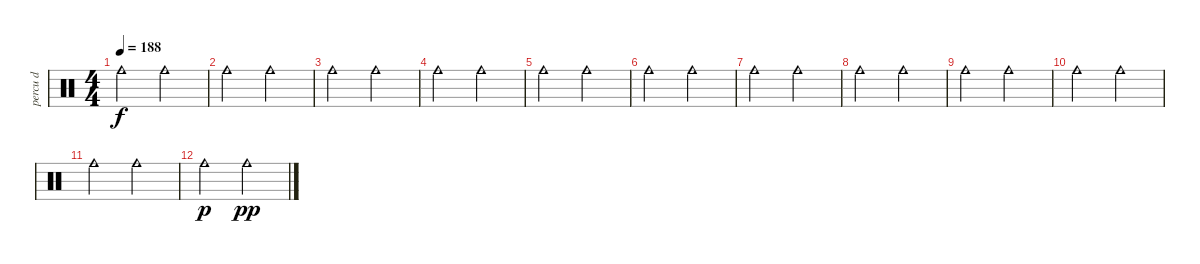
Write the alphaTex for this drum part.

\track ("percu d" "percu d") {instrument percussion}
\staff {score}
\articulation defaults
\ts (4 4)
\tempo 188
\clef neutral
\ks c "Cowbell medium (hit)".2{dy f} "Cowbell medium (hit)".2
|
"Cowbell medium (hit)".2 "Cowbell medium (hit)".2 |
"Cowbell medium (hit)".2 "Cowbell medium (hit)".2 |
"Cowbell medium (hit)".2 "Cowbell medium (hit)".2 |
"Cowbell medium (hit)".2 "Cowbell medium (hit)".2 |
"Cowbell medium (hit)".2 "Cowbell medium (hit)".2 |
"Cowbell medium (hit)".2 "Cowbell medium (hit)".2 |
"Cowbell medium (hit)".2 "Cowbell medium (hit)".2 |
"Cowbell medium (hit)".2 "Cowbell medium (hit)".2 |
"Cowbell medium (hit)".2 "Cowbell medium (hit)".2 |
"Cowbell medium (hit)".2 "Cowbell medium (hit)".2 |
"Cowbell medium (hit)".2{dy p} "Cowbell medium (hit)".2{dy pp}
